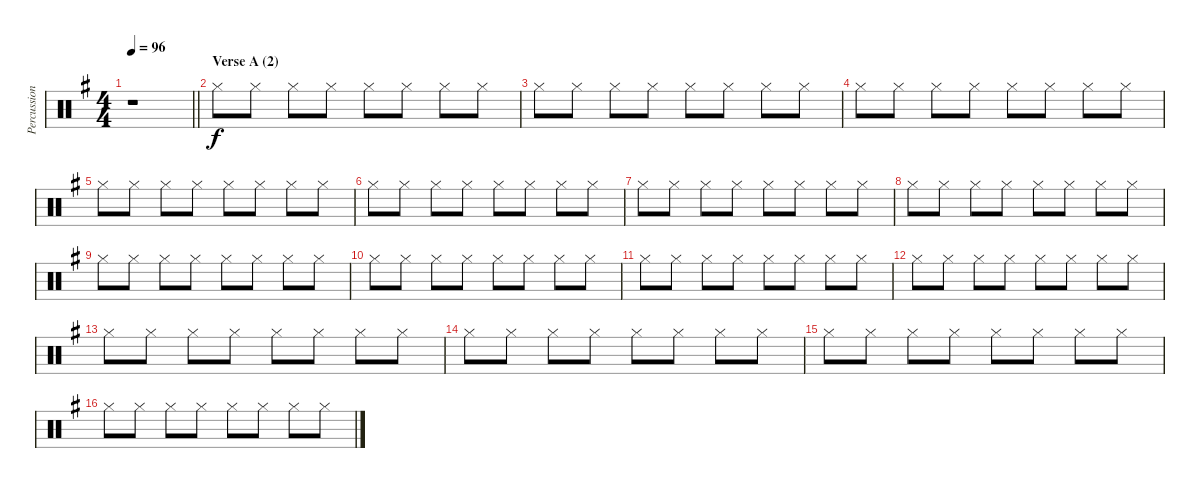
\track ("Percussion" "Percussion") {instrument percussion}
\staff {score}
\articulation defaults
\ts (4 4)
\tempo 96
\clef neutral
\barLineRight lightlight
\ks eminor
r.1{dy f} |
\section ("" "Verse A (2)")
"Hi-Hat (closed)".8 "Hi-Hat (closed)".8 "Hi-Hat (closed)".8 "Hi-Hat (closed)".8 "Hi-Hat (closed)".8 "Hi-Hat (closed)".8 "Hi-Hat (closed)".8 "Hi-Hat (closed)".8 |
"Hi-Hat (closed)".8 "Hi-Hat (closed)".8 "Hi-Hat (closed)".8 "Hi-Hat (closed)".8 "Hi-Hat (closed)".8 "Hi-Hat (closed)".8 "Hi-Hat (closed)".8 "Hi-Hat (closed)".8 |
"Hi-Hat (closed)".8 "Hi-Hat (closed)".8 "Hi-Hat (closed)".8 "Hi-Hat (closed)".8 "Hi-Hat (closed)".8 "Hi-Hat (closed)".8 "Hi-Hat (closed)".8 "Hi-Hat (closed)".8 |
"Hi-Hat (closed)".8 "Hi-Hat (closed)".8 "Hi-Hat (closed)".8 "Hi-Hat (closed)".8 "Hi-Hat (closed)".8 "Hi-Hat (closed)".8 "Hi-Hat (closed)".8 "Hi-Hat (closed)".8 |
"Hi-Hat (closed)".8 "Hi-Hat (closed)".8 "Hi-Hat (closed)".8 "Hi-Hat (closed)".8 "Hi-Hat (closed)".8 "Hi-Hat (closed)".8 "Hi-Hat (closed)".8 "Hi-Hat (closed)".8 |
"Hi-Hat (closed)".8 "Hi-Hat (closed)".8 "Hi-Hat (closed)".8 "Hi-Hat (closed)".8 "Hi-Hat (closed)".8 "Hi-Hat (closed)".8 "Hi-Hat (closed)".8 "Hi-Hat (closed)".8 |
"Hi-Hat (closed)".8 "Hi-Hat (closed)".8 "Hi-Hat (closed)".8 "Hi-Hat (closed)".8 "Hi-Hat (closed)".8 "Hi-Hat (closed)".8 "Hi-Hat (closed)".8 "Hi-Hat (closed)".8 |
"Hi-Hat (closed)".8 "Hi-Hat (closed)".8 "Hi-Hat (closed)".8 "Hi-Hat (closed)".8 "Hi-Hat (closed)".8 "Hi-Hat (closed)".8 "Hi-Hat (closed)".8 "Hi-Hat (closed)".8 |
"Hi-Hat (closed)".8 "Hi-Hat (closed)".8 "Hi-Hat (closed)".8 "Hi-Hat (closed)".8 "Hi-Hat (closed)".8 "Hi-Hat (closed)".8 "Hi-Hat (closed)".8 "Hi-Hat (closed)".8 |
"Hi-Hat (closed)".8 "Hi-Hat (closed)".8 "Hi-Hat (closed)".8 "Hi-Hat (closed)".8 "Hi-Hat (closed)".8 "Hi-Hat (closed)".8 "Hi-Hat (closed)".8 "Hi-Hat (closed)".8 |
"Hi-Hat (closed)".8 "Hi-Hat (closed)".8 "Hi-Hat (closed)".8 "Hi-Hat (closed)".8 "Hi-Hat (closed)".8 "Hi-Hat (closed)".8 "Hi-Hat (closed)".8 "Hi-Hat (closed)".8 |
"Hi-Hat (closed)".8 "Hi-Hat (closed)".8 "Hi-Hat (closed)".8 "Hi-Hat (closed)".8 "Hi-Hat (closed)".8 "Hi-Hat (closed)".8 "Hi-Hat (closed)".8 "Hi-Hat (closed)".8 |
"Hi-Hat (closed)".8 "Hi-Hat (closed)".8 "Hi-Hat (closed)".8 "Hi-Hat (closed)".8 "Hi-Hat (closed)".8 "Hi-Hat (closed)".8 "Hi-Hat (closed)".8 "Hi-Hat (closed)".8 |
"Hi-Hat (closed)".8 "Hi-Hat (closed)".8 "Hi-Hat (closed)".8 "Hi-Hat (closed)".8 "Hi-Hat (closed)".8 "Hi-Hat (closed)".8 "Hi-Hat (closed)".8 "Hi-Hat (closed)".8 |
"Hi-Hat (closed)".8 "Hi-Hat (closed)".8 "Hi-Hat (closed)".8 "Hi-Hat (closed)".8 "Hi-Hat (closed)".8 "Hi-Hat (closed)".8 "Hi-Hat (closed)".8 "Hi-Hat (closed)".8
